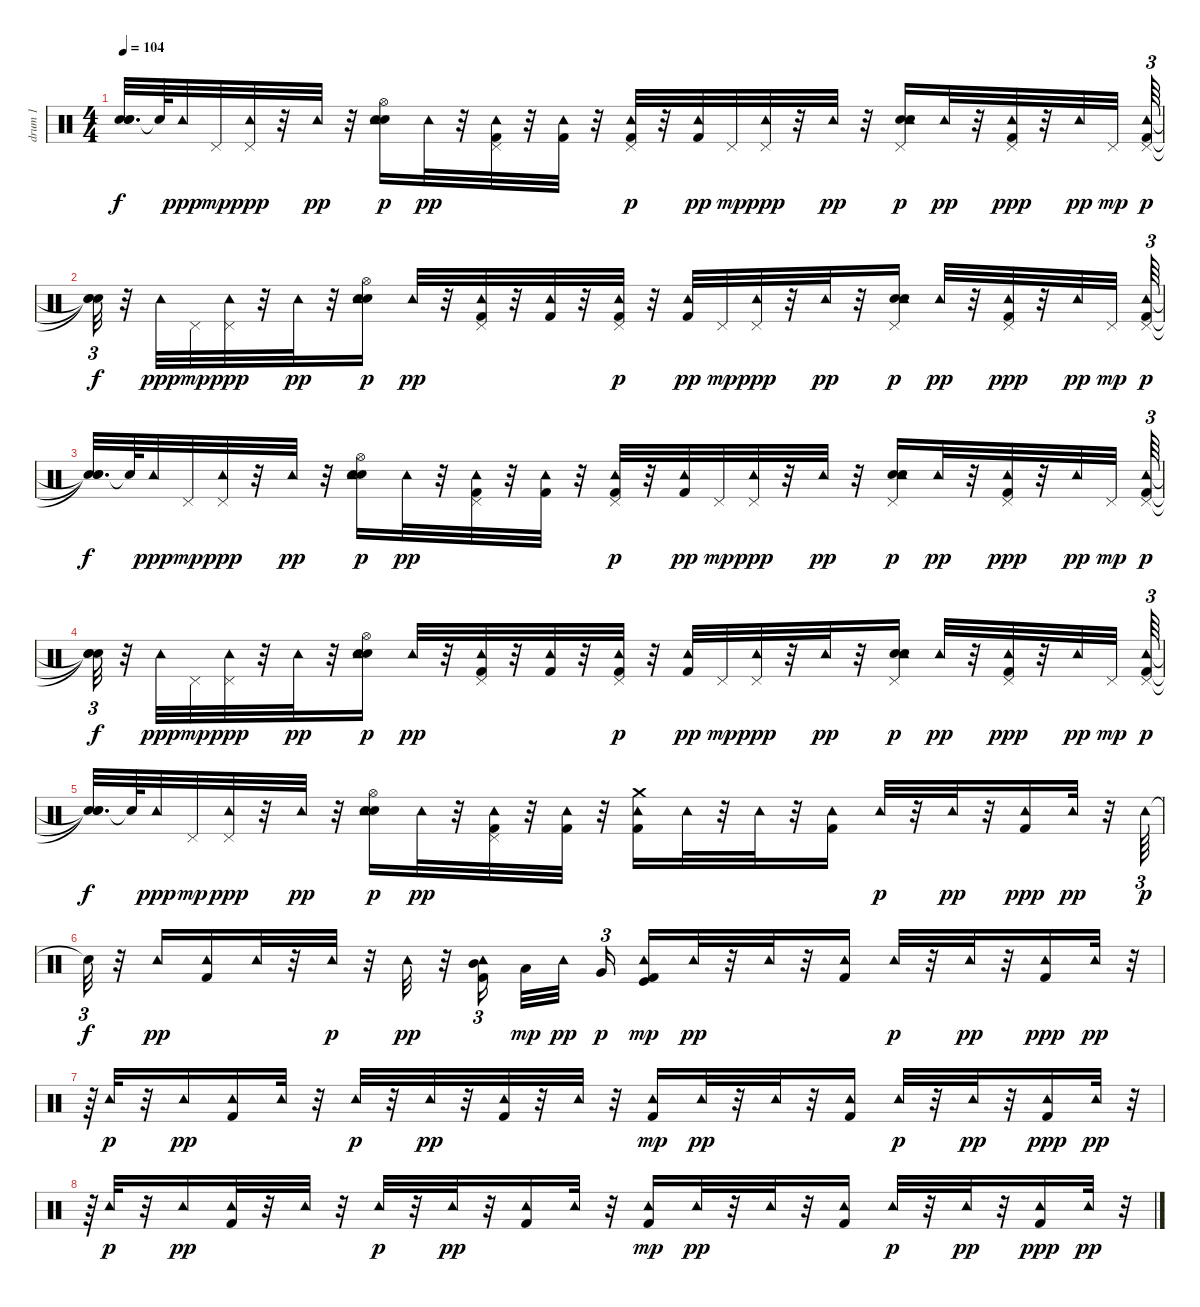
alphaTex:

\track ("drum 1" "drum 1") {instrument percussion}
\staff {score}
\articulation defaults
\ts (4 4)
\tempo 104
\clef neutral
\ks c
("Snare (hit)"{t} "Snare (hit)"{t} "Snare (hit)"{t}).32{d dy f} "Snare (hit)"{t}.64 "Tambourine (hit)".32{dy ppp} "Pedal Hi-Hat (hit)".32{dy mp} ("Pedal Hi-Hat (hit)" "Tambourine (hit)").32{dy ppp} r.32 "Tambourine (hit)".32{dy pp} r.32 ("Hand Clap (hit)" "Electric Snare (hit)" "Hi-Hat (open)" "Tambourine (hit)").16{dy p} "Tambourine (hit)".32{dy pp} r.32 ("Kick (hit) 2" "Pedal Hi-Hat (hit)" "Tambourine (hit)").32 r.32 ("Kick (hit) 2" "Tambourine (hit)").32 r.32 ("Kick (hit) 2" "Pedal Hi-Hat (hit)" "Tambourine (hit)").32{dy p} r.32 ("Kick (hit) 2" "Tambourine (hit)").32{dy pp} "Pedal Hi-Hat (hit)".32{dy mp} ("Pedal Hi-Hat (hit)" "Tambourine (hit)").32{dy ppp} r.32 "Tambourine (hit)".32{dy pp} r.32 ("Hand Clap (hit)" "Electric Snare (hit)" "Pedal Hi-Hat (hit)" "Tambourine (hit)").16{dy p} "Tambourine (hit)".32{dy pp} r.32 ("Kick (hit) 2" "Pedal Hi-Hat (hit)" "Tambourine (hit)").32{dy ppp} r.32 "Tambourine (hit)".32{dy pp} "Pedal Hi-Hat (hit)".32{dy mp} ("Kick (hit) 2" "Pedal Hi-Hat (hit)" "Tambourine (hit)").64{tu (3 2) dy p} |
("Snare (hit)"{t} "Snare (hit)"{t} "Snare (hit)"{t}).32{tu (3 2) dy f} r.32 "Tambourine (hit)".32{dy ppp} "Pedal Hi-Hat (hit)".32{dy mp} ("Pedal Hi-Hat (hit)" "Tambourine (hit)").32{dy ppp} r.32 "Tambourine (hit)".32{dy pp} r.32 ("Hand Clap (hit)" "Electric Snare (hit)" "Hi-Hat (open)" "Tambourine (hit)").16{dy p} "Tambourine (hit)".32{dy pp} r.32 ("Kick (hit) 2" "Pedal Hi-Hat (hit)" "Tambourine (hit)").32 r.32 ("Kick (hit) 2" "Tambourine (hit)").32 r.32 ("Kick (hit) 2" "Pedal Hi-Hat (hit)" "Tambourine (hit)").32{dy p} r.32 ("Kick (hit) 2" "Tambourine (hit)").32{dy pp} "Pedal Hi-Hat (hit)".32{dy mp} ("Pedal Hi-Hat (hit)" "Tambourine (hit)").32{dy ppp} r.32 "Tambourine (hit)".32{dy pp} r.32 ("Hand Clap (hit)" "Electric Snare (hit)" "Pedal Hi-Hat (hit)" "Tambourine (hit)").16{dy p} "Tambourine (hit)".32{dy pp} r.32 ("Kick (hit) 2" "Pedal Hi-Hat (hit)" "Tambourine (hit)").32{dy ppp} r.32 "Tambourine (hit)".32{dy pp} "Pedal Hi-Hat (hit)".32{dy mp beam splitsecondary} ("Kick (hit) 2" "Pedal Hi-Hat (hit)" "Tambourine (hit)").64{tu (3 2) dy p} |
("Snare (hit)"{t} "Snare (hit)"{t} "Snare (hit)"{t}).32{d dy f} "Snare (hit)"{t}.64 "Tambourine (hit)".32{dy ppp} "Pedal Hi-Hat (hit)".32{dy mp} ("Pedal Hi-Hat (hit)" "Tambourine (hit)").32{dy ppp} r.32 "Tambourine (hit)".32{dy pp} r.32 ("Hand Clap (hit)" "Electric Snare (hit)" "Hi-Hat (open)" "Tambourine (hit)").16{dy p} "Tambourine (hit)".32{dy pp} r.32 ("Kick (hit) 2" "Pedal Hi-Hat (hit)" "Tambourine (hit)").32 r.32 ("Kick (hit) 2" "Tambourine (hit)").32 r.32 ("Kick (hit) 2" "Pedal Hi-Hat (hit)" "Tambourine (hit)").32{dy p} r.32 ("Kick (hit) 2" "Tambourine (hit)").32{dy pp} "Pedal Hi-Hat (hit)".32{dy mp} ("Pedal Hi-Hat (hit)" "Tambourine (hit)").32{dy ppp} r.32 "Tambourine (hit)".32{dy pp} r.32 ("Hand Clap (hit)" "Electric Snare (hit)" "Pedal Hi-Hat (hit)" "Tambourine (hit)").16{dy p} "Tambourine (hit)".32{dy pp} r.32 ("Kick (hit) 2" "Pedal Hi-Hat (hit)" "Tambourine (hit)").32{dy ppp} r.32 "Tambourine (hit)".32{dy pp} "Pedal Hi-Hat (hit)".32{dy mp} ("Kick (hit) 2" "Pedal Hi-Hat (hit)" "Tambourine (hit)").64{tu (3 2) dy p} |
("Snare (hit)"{t} "Snare (hit)"{t} "Snare (hit)"{t}).32{tu (3 2) dy f} r.32 "Tambourine (hit)".32{dy ppp} "Pedal Hi-Hat (hit)".32{dy mp} ("Pedal Hi-Hat (hit)" "Tambourine (hit)").32{dy ppp} r.32 "Tambourine (hit)".32{dy pp} r.32 ("Hand Clap (hit)" "Electric Snare (hit)" "Hi-Hat (open)" "Tambourine (hit)").16{dy p} "Tambourine (hit)".32{dy pp} r.32 ("Kick (hit) 2" "Pedal Hi-Hat (hit)" "Tambourine (hit)").32 r.32 ("Kick (hit) 2" "Tambourine (hit)").32 r.32 ("Kick (hit) 2" "Pedal Hi-Hat (hit)" "Tambourine (hit)").32{dy p} r.32 ("Kick (hit) 2" "Tambourine (hit)").32{dy pp} "Pedal Hi-Hat (hit)".32{dy mp} ("Pedal Hi-Hat (hit)" "Tambourine (hit)").32{dy ppp} r.32 "Tambourine (hit)".32{dy pp} r.32 ("Hand Clap (hit)" "Electric Snare (hit)" "Pedal Hi-Hat (hit)" "Tambourine (hit)").16{dy p} "Tambourine (hit)".32{dy pp} r.32 ("Kick (hit) 2" "Pedal Hi-Hat (hit)" "Tambourine (hit)").32{dy ppp} r.32 "Tambourine (hit)".32{dy pp} "Pedal Hi-Hat (hit)".32{dy mp beam splitsecondary} ("Kick (hit) 2" "Pedal Hi-Hat (hit)" "Tambourine (hit)").64{tu (3 2) dy p} |
("Snare (hit)"{t} "Snare (hit)"{t} "Snare (hit)"{t}).32{d dy f} "Snare (hit)"{t}.64 "Tambourine (hit)".32{dy ppp} "Pedal Hi-Hat (hit)".32{dy mp} ("Pedal Hi-Hat (hit)" "Tambourine (hit)").32{dy ppp} r.32 "Tambourine (hit)".32{dy pp} r.32 ("Hand Clap (hit)" "Electric Snare (hit)" "Hi-Hat (open)" "Tambourine (hit)").16{dy p} "Tambourine (hit)".32{dy pp} r.32 ("Kick (hit) 2" "Pedal Hi-Hat (hit)" "Tambourine (hit)").32 r.32 ("Kick (hit) 2" "Tambourine (hit)").32 r.32 ("Kick (hit) 2" "Tambourine (hit)" "Crash medium (hit)").16 "Tambourine (hit)".32 r.32 "Tambourine (hit)".32 r.32 ("Kick (hit) 2" "Tambourine (hit)").16 "Tambourine (hit)".32{dy p} r.32 "Tambourine (hit)".32{dy pp} r.32 ("Kick (hit) 2" "Tambourine (hit)").16{dy ppp} "Tambourine (hit)".32{dy pp} r.32 "Tambourine (hit)".64{tu (3 2) dy p} |
"Snare (hit)"{t}.32{tu (3 2) dy f} r.32 "Tambourine (hit)".16{dy pp} ("Kick (hit) 2" "Tambourine (hit)").16 "Tambourine (hit)".32 r.32 "Tambourine (hit)".32{dy p} r.32 "Tambourine (hit)".32{dy pp} r.32 ("Kick (hit) 2" "Mid Tom (hit)" "Tambourine (hit)").16{tu (3 2) beam splitsecondary} "Low Tom (hit)".32{dy mp} "Tambourine (hit)".32{dy pp beam splitsecondary} "Very Low Tom (hit)".16{tu (3 2) dy p} ("Kick (hit)" "Kick (hit) 2" "Tambourine (hit)").16{dy mp} "Tambourine (hit)".32{dy pp} r.32 "Tambourine (hit)".32 r.32 ("Kick (hit) 2" "Tambourine (hit)").16 "Tambourine (hit)".32{dy p} r.32 "Tambourine (hit)".32{dy pp} r.32 ("Kick (hit) 2" "Tambourine (hit)").16{dy ppp} "Tambourine (hit)".32{dy pp} r.32{tu (3 2)} |
r.64{tu (3 2)} "Tambourine (hit)".32{dy p} r.32 "Tambourine (hit)".16{dy pp} ("Kick (hit) 2" "Tambourine (hit)").16 "Tambourine (hit)".32 r.32 "Tambourine (hit)".32{dy p} r.32 "Tambourine (hit)".32{dy pp} r.32 ("Kick (hit) 2" "Tambourine (hit)").32 r.32 "Tambourine (hit)".32 r.32 ("Kick (hit) 2" "Tambourine (hit)").16{dy mp} "Tambourine (hit)".32{dy pp} r.32 "Tambourine (hit)".32 r.32 ("Kick (hit) 2" "Tambourine (hit)").16 "Tambourine (hit)".32{dy p} r.32 "Tambourine (hit)".32{dy pp} r.32 ("Kick (hit) 2" "Tambourine (hit)").16{dy ppp} "Tambourine (hit)".32{dy pp} r.32{tu (3 2)} |
r.64{tu (3 2)} "Tambourine (hit)".32{dy p} r.32 "Tambourine (hit)".16{dy pp} ("Kick (hit) 2" "Tambourine (hit)").32 r.32 "Tambourine (hit)".32 r.32 "Tambourine (hit)".32{dy p} r.32 "Tambourine (hit)".32{dy pp} r.32 ("Kick (hit) 2" "Tambourine (hit)").16 "Tambourine (hit)".32 r.32 ("Kick (hit) 2" "Tambourine (hit)").16{dy mp} "Tambourine (hit)".32{dy pp} r.32 "Tambourine (hit)".32 r.32 ("Kick (hit) 2" "Tambourine (hit)").16 "Tambourine (hit)".32{dy p} r.32 "Tambourine (hit)".32{dy pp} r.32 ("Kick (hit) 2" "Tambourine (hit)").16{dy ppp} "Tambourine (hit)".32{dy pp} r.32{tu (3 2)}
